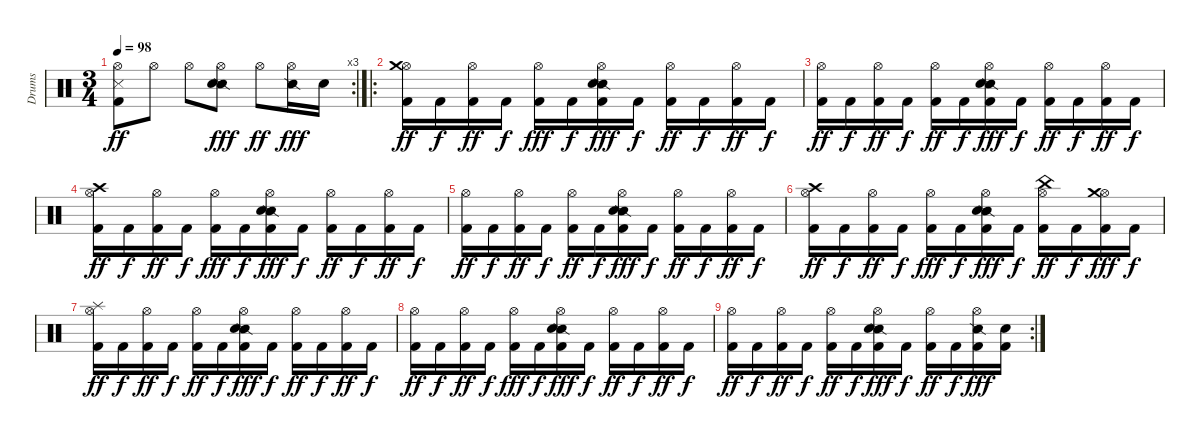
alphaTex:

\track ("Drums" "Drums") {instrument percussion}
\staff {score}
\articulation defaults
\rc 3
\ts (3 4)
\tempo 98
\clef neutral
\ks c
("Hi-Hat (open)" "Metronome (hit)" "Kick (hit) 2").8{dy ff} "Hi-Hat (open)".8 "Hi-Hat (open)".8 ("Hi-Hat (open)" "Snare (side stick) 2" "Electric Snare (hit)").8{dy fff} "Hi-Hat (open)".8{dy ff} ("Hi-Hat (open)" "Snare (side stick) 2").16{dy fff} "Electric Snare (hit)".16 |
\ro
("Hi-Hat (open)" "Crash medium (hit)" "Kick (hit) 2").16{dy ff balance 8} "Kick (hit) 2".16{dy f} ("Hi-Hat (open)" "Kick (hit) 2").16{dy ff} "Kick (hit) 2".16{dy f} ("Hi-Hat (open)" "Kick (hit) 2").16{dy fff} "Kick (hit) 2".16{dy f} ("Hi-Hat (open)" "Snare (side stick) 2" "Electric Snare (hit)" "Kick (hit) 2").16{dy fff} "Kick (hit) 2".16{dy f} ("Hi-Hat (open)" "Kick (hit) 2").16{dy ff} "Kick (hit) 2".16{dy f} ("Hi-Hat (open)" "Kick (hit) 2").16{dy ff} "Kick (hit) 2".16{dy f} |
("Hi-Hat (open)" "Kick (hit) 2").16{dy ff} "Kick (hit) 2".16{dy f} ("Hi-Hat (open)" "Kick (hit) 2").16{dy ff} "Kick (hit) 2".16{dy f} ("Hi-Hat (open)" "Kick (hit) 2").16{dy ff} "Kick (hit) 2".16{dy f} ("Hi-Hat (open)" "Snare (side stick) 2" "Electric Snare (hit)" "Kick (hit) 2").16{dy fff} "Kick (hit) 2".16{dy f} ("Hi-Hat (open)" "Kick (hit) 2").16{dy ff} "Kick (hit) 2".16{dy f} ("Hi-Hat (open)" "Kick (hit) 2").16{dy ff} "Kick (hit) 2".16{dy f} |
("Hi-Hat (open)" "Crash high (hit)" "Kick (hit) 2").16{dy ff} "Kick (hit) 2".16{dy f} ("Hi-Hat (open)" "Kick (hit) 2").16{dy ff} "Kick (hit) 2".16{dy f} ("Hi-Hat (open)" "Kick (hit) 2").16{dy fff} "Kick (hit) 2".16{dy f} ("Hi-Hat (open)" "Snare (side stick) 2" "Electric Snare (hit)" "Kick (hit) 2").16{dy fff} "Kick (hit) 2".16{dy f} ("Hi-Hat (open)" "Kick (hit) 2").16{dy ff} "Kick (hit) 2".16{dy f} ("Hi-Hat (open)" "Kick (hit) 2").16{dy ff} "Kick (hit) 2".16{dy f} |
("Hi-Hat (open)" "Kick (hit) 2").16{dy ff} "Kick (hit) 2".16{dy f} ("Hi-Hat (open)" "Kick (hit) 2").16{dy ff} "Kick (hit) 2".16{dy f} ("Hi-Hat (open)" "Kick (hit) 2").16{dy ff} "Kick (hit) 2".16{dy f} ("Hi-Hat (open)" "Snare (side stick) 2" "Electric Snare (hit)" "Kick (hit) 2").16{dy fff} "Kick (hit) 2".16{dy f} ("Hi-Hat (open)" "Kick (hit) 2").16{dy ff} "Kick (hit) 2".16{dy f} ("Hi-Hat (open)" "Kick (hit) 2").16{dy ff} "Kick (hit) 2".16{dy f} |
("Hi-Hat (open)" "Crash high (hit)" "Kick (hit) 2").16{dy ff} "Kick (hit) 2".16{dy f} ("Hi-Hat (open)" "Kick (hit) 2").16{dy ff} "Kick (hit) 2".16{dy f} ("Hi-Hat (open)" "Kick (hit) 2").16{dy fff} "Kick (hit) 2".16{dy f} ("Hi-Hat (open)" "Snare (side stick) 2" "Electric Snare (hit)" "Kick (hit) 2").16{dy fff} "Kick (hit) 2".16{dy f} ("Hi-Hat (open)" "China (hit)" "Kick (hit) 2").16{dy ff} "Kick (hit) 2".16{dy f} ("Hi-Hat (open)" "Crash medium (hit)" "Kick (hit) 2").16{dy fff} "Kick (hit) 2".16{dy f} |
("Hi-Hat (open)" "Splash (hit)" "Kick (hit) 2").16{dy ff} "Kick (hit) 2".16{dy f} ("Hi-Hat (open)" "Kick (hit) 2").16{dy ff} "Kick (hit) 2".16{dy f} ("Hi-Hat (open)" "Kick (hit) 2").16{dy ff} "Kick (hit) 2".16{dy f} ("Hi-Hat (open)" "Snare (side stick) 2" "Electric Snare (hit)" "Kick (hit) 2").16{dy fff} "Kick (hit) 2".16{dy f} ("Hi-Hat (open)" "Kick (hit) 2").16{dy ff} "Kick (hit) 2".16{dy f} ("Hi-Hat (open)" "Kick (hit) 2").16{dy ff} "Kick (hit) 2".16{dy f} |
("Hi-Hat (open)" "Kick (hit) 2").16{dy ff} "Kick (hit) 2".16{dy f} ("Hi-Hat (open)" "Kick (hit) 2").16{dy ff} "Kick (hit) 2".16{dy f} ("Hi-Hat (open)" "Kick (hit) 2").16{dy fff} "Kick (hit) 2".16{dy f} ("Hi-Hat (open)" "Snare (side stick) 2" "Electric Snare (hit)" "Kick (hit) 2").16{dy fff} "Kick (hit) 2".16{dy f} ("Hi-Hat (open)" "Kick (hit) 2").16{dy ff} "Kick (hit) 2".16{dy f} ("Hi-Hat (open)" "Kick (hit) 2").16{dy ff} "Kick (hit) 2".16{dy f} |
\rc 2
("Hi-Hat (open)" "Kick (hit) 2").16{dy ff} "Kick (hit) 2".16{dy f} ("Hi-Hat (open)" "Kick (hit) 2").16{dy ff} "Kick (hit) 2".16{dy f} ("Hi-Hat (open)" "Kick (hit) 2").16{dy ff} "Kick (hit) 2".16{dy f} ("Hi-Hat (open)" "Snare (side stick) 2" "Electric Snare (hit)" "Kick (hit) 2").16{dy fff} "Kick (hit) 2".16{dy f} ("Hi-Hat (open)" "Kick (hit) 2").16{dy ff} "Kick (hit) 2".16{dy f} ("Hi-Hat (open)" "Snare (side stick) 2" "Kick (hit) 2").16{dy fff} ("Electric Snare (hit)" "Kick (hit) 2").16
